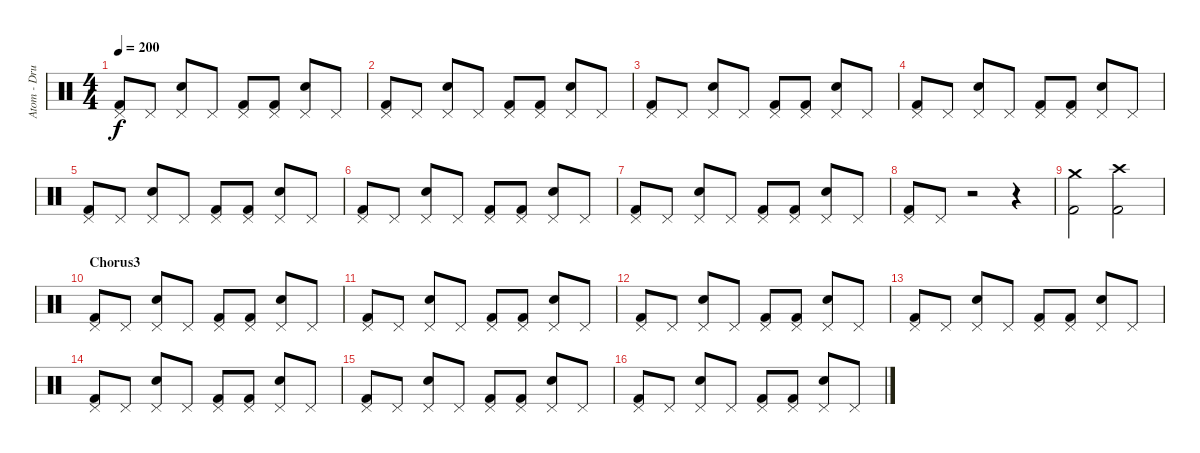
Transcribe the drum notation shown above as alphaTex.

\track ("Atom - Drums" "Atom - Dru") {instrument percussion}
\staff {score}
\articulation defaults
\ts (4 4)
\tempo 200
\clef neutral
\ks c
("Pedal Hi-Hat (hit)" "Kick (hit) 2").8{dy f} "Pedal Hi-Hat (hit)".8 ("Pedal Hi-Hat (hit)" "Electric Snare (hit)").8 "Pedal Hi-Hat (hit)".8 ("Pedal Hi-Hat (hit)" "Kick (hit) 2").8 ("Pedal Hi-Hat (hit)" "Kick (hit) 2").8 ("Pedal Hi-Hat (hit)" "Electric Snare (hit)").8 "Pedal Hi-Hat (hit)".8 |
("Pedal Hi-Hat (hit)" "Kick (hit) 2").8 "Pedal Hi-Hat (hit)".8 ("Pedal Hi-Hat (hit)" "Electric Snare (hit)").8 "Pedal Hi-Hat (hit)".8 ("Pedal Hi-Hat (hit)" "Kick (hit) 2").8 ("Pedal Hi-Hat (hit)" "Kick (hit) 2").8 ("Pedal Hi-Hat (hit)" "Electric Snare (hit)").8 "Pedal Hi-Hat (hit)".8 |
("Pedal Hi-Hat (hit)" "Kick (hit) 2").8 "Pedal Hi-Hat (hit)".8 ("Pedal Hi-Hat (hit)" "Electric Snare (hit)").8 "Pedal Hi-Hat (hit)".8 ("Pedal Hi-Hat (hit)" "Kick (hit) 2").8 ("Pedal Hi-Hat (hit)" "Kick (hit) 2").8 ("Pedal Hi-Hat (hit)" "Electric Snare (hit)").8 "Pedal Hi-Hat (hit)".8 |
("Pedal Hi-Hat (hit)" "Kick (hit) 2").8 "Pedal Hi-Hat (hit)".8 ("Pedal Hi-Hat (hit)" "Electric Snare (hit)").8 "Pedal Hi-Hat (hit)".8 ("Pedal Hi-Hat (hit)" "Kick (hit) 2").8 ("Pedal Hi-Hat (hit)" "Kick (hit) 2").8 ("Pedal Hi-Hat (hit)" "Electric Snare (hit)").8 "Pedal Hi-Hat (hit)".8 |
("Pedal Hi-Hat (hit)" "Kick (hit) 2").8 "Pedal Hi-Hat (hit)".8 ("Pedal Hi-Hat (hit)" "Electric Snare (hit)").8 "Pedal Hi-Hat (hit)".8 ("Pedal Hi-Hat (hit)" "Kick (hit) 2").8 ("Pedal Hi-Hat (hit)" "Kick (hit) 2").8 ("Pedal Hi-Hat (hit)" "Electric Snare (hit)").8 "Pedal Hi-Hat (hit)".8 |
("Pedal Hi-Hat (hit)" "Kick (hit) 2").8 "Pedal Hi-Hat (hit)".8 ("Pedal Hi-Hat (hit)" "Electric Snare (hit)").8 "Pedal Hi-Hat (hit)".8 ("Pedal Hi-Hat (hit)" "Kick (hit) 2").8 ("Pedal Hi-Hat (hit)" "Kick (hit) 2").8 ("Pedal Hi-Hat (hit)" "Electric Snare (hit)").8 "Pedal Hi-Hat (hit)".8 |
("Pedal Hi-Hat (hit)" "Kick (hit) 2").8 "Pedal Hi-Hat (hit)".8 ("Pedal Hi-Hat (hit)" "Electric Snare (hit)").8 "Pedal Hi-Hat (hit)".8 ("Pedal Hi-Hat (hit)" "Kick (hit) 2").8 ("Pedal Hi-Hat (hit)" "Kick (hit) 2").8 ("Pedal Hi-Hat (hit)" "Electric Snare (hit)").8 "Pedal Hi-Hat (hit)".8 |
("Pedal Hi-Hat (hit)" "Kick (hit) 2").8 "Pedal Hi-Hat (hit)".8 r.2 r.4 |
("Crash medium (hit)" "Kick (hit) 2").2 ("Crash high (hit)" "Kick (hit) 2").2 |
\section ("" "Chorus3")
("Pedal Hi-Hat (hit)" "Kick (hit) 2").8 "Pedal Hi-Hat (hit)".8 ("Pedal Hi-Hat (hit)" "Electric Snare (hit)").8 "Pedal Hi-Hat (hit)".8 ("Pedal Hi-Hat (hit)" "Kick (hit) 2").8 ("Pedal Hi-Hat (hit)" "Kick (hit) 2").8 ("Pedal Hi-Hat (hit)" "Electric Snare (hit)").8 "Pedal Hi-Hat (hit)".8 |
("Pedal Hi-Hat (hit)" "Kick (hit) 2").8 "Pedal Hi-Hat (hit)".8 ("Pedal Hi-Hat (hit)" "Electric Snare (hit)").8 "Pedal Hi-Hat (hit)".8 ("Pedal Hi-Hat (hit)" "Kick (hit) 2").8 ("Pedal Hi-Hat (hit)" "Kick (hit) 2").8 ("Pedal Hi-Hat (hit)" "Electric Snare (hit)").8 "Pedal Hi-Hat (hit)".8 |
("Pedal Hi-Hat (hit)" "Kick (hit) 2").8 "Pedal Hi-Hat (hit)".8 ("Pedal Hi-Hat (hit)" "Electric Snare (hit)").8 "Pedal Hi-Hat (hit)".8 ("Pedal Hi-Hat (hit)" "Kick (hit) 2").8 ("Pedal Hi-Hat (hit)" "Kick (hit) 2").8 ("Pedal Hi-Hat (hit)" "Electric Snare (hit)").8 "Pedal Hi-Hat (hit)".8 |
("Pedal Hi-Hat (hit)" "Kick (hit) 2").8 "Pedal Hi-Hat (hit)".8 ("Pedal Hi-Hat (hit)" "Electric Snare (hit)").8 "Pedal Hi-Hat (hit)".8 ("Pedal Hi-Hat (hit)" "Kick (hit) 2").8 ("Pedal Hi-Hat (hit)" "Kick (hit) 2").8 ("Pedal Hi-Hat (hit)" "Electric Snare (hit)").8 "Pedal Hi-Hat (hit)".8 |
("Pedal Hi-Hat (hit)" "Kick (hit) 2").8 "Pedal Hi-Hat (hit)".8 ("Pedal Hi-Hat (hit)" "Electric Snare (hit)").8 "Pedal Hi-Hat (hit)".8 ("Pedal Hi-Hat (hit)" "Kick (hit) 2").8 ("Pedal Hi-Hat (hit)" "Kick (hit) 2").8 ("Pedal Hi-Hat (hit)" "Electric Snare (hit)").8 "Pedal Hi-Hat (hit)".8 |
("Pedal Hi-Hat (hit)" "Kick (hit) 2").8 "Pedal Hi-Hat (hit)".8 ("Pedal Hi-Hat (hit)" "Electric Snare (hit)").8 "Pedal Hi-Hat (hit)".8 ("Pedal Hi-Hat (hit)" "Kick (hit) 2").8 ("Pedal Hi-Hat (hit)" "Kick (hit) 2").8 ("Pedal Hi-Hat (hit)" "Electric Snare (hit)").8 "Pedal Hi-Hat (hit)".8 |
("Pedal Hi-Hat (hit)" "Kick (hit) 2").8 "Pedal Hi-Hat (hit)".8 ("Pedal Hi-Hat (hit)" "Electric Snare (hit)").8 "Pedal Hi-Hat (hit)".8 ("Pedal Hi-Hat (hit)" "Kick (hit) 2").8 ("Pedal Hi-Hat (hit)" "Kick (hit) 2").8 ("Pedal Hi-Hat (hit)" "Electric Snare (hit)").8 "Pedal Hi-Hat (hit)".8
